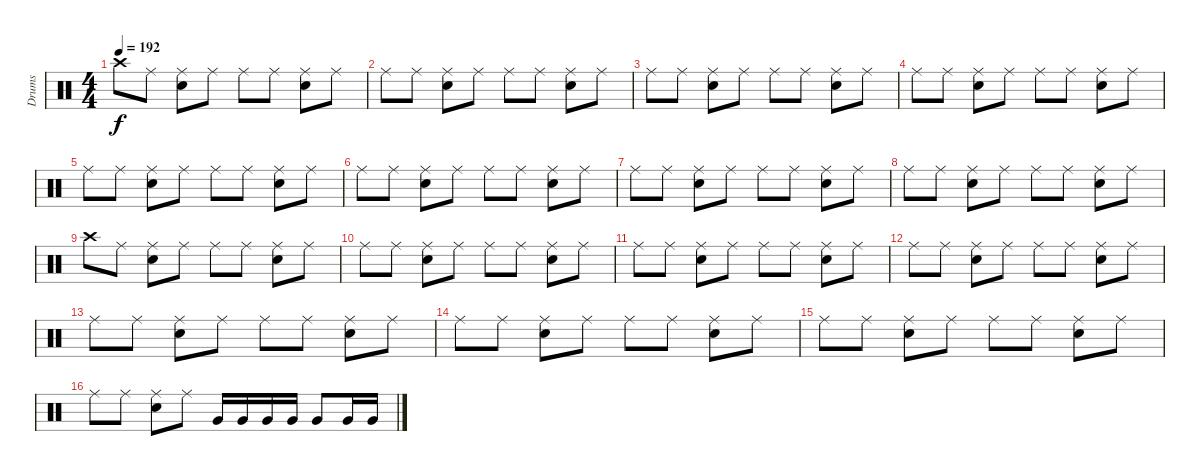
\track ("Drums" "Drums") {instrument percussion}
\staff {score}
\articulation defaults
\ts (4 4)
\tempo 192
\clef neutral
\ks c "Crash high (hit)".8{dy f} "Ride (middle)".8
("Ride (middle)" "Snare (hit) 2").8 "Ride (middle)".8 "Ride (middle)".8 "Ride (middle)".8 ("Ride (middle)" "Snare (hit) 2").8 "Ride (middle)".8 |
"Ride (middle)".8 "Ride (middle)".8 ("Ride (middle)" "Snare (hit) 2").8 "Ride (middle)".8 "Ride (middle)".8 "Ride (middle)".8 ("Ride (middle)" "Snare (hit) 2").8 "Ride (middle)".8 |
"Ride (middle)".8 "Ride (middle)".8 ("Ride (middle)" "Snare (hit) 2").8 "Ride (middle)".8 "Ride (middle)".8 "Ride (middle)".8 ("Ride (middle)" "Snare (hit) 2").8 "Ride (middle)".8 |
"Ride (middle)".8 "Ride (middle)".8 ("Ride (middle)" "Snare (hit) 2").8 "Ride (middle)".8 "Ride (middle)".8 "Ride (middle)".8 ("Ride (middle)" "Snare (hit) 2").8 "Ride (middle)".8 |
"Ride (middle)".8 "Ride (middle)".8 ("Ride (middle)" "Snare (hit) 2").8 "Ride (middle)".8 "Ride (middle)".8 "Ride (middle)".8 ("Ride (middle)" "Snare (hit) 2").8 "Ride (middle)".8 |
"Ride (middle)".8 "Ride (middle)".8 ("Ride (middle)" "Snare (hit) 2").8 "Ride (middle)".8 "Ride (middle)".8 "Ride (middle)".8 ("Ride (middle)" "Snare (hit) 2").8 "Ride (middle)".8 |
"Ride (middle)".8 "Ride (middle)".8 ("Ride (middle)" "Snare (hit) 2").8 "Ride (middle)".8 "Ride (middle)".8 "Ride (middle)".8 ("Ride (middle)" "Snare (hit) 2").8 "Ride (middle)".8 |
"Ride (middle)".8 "Ride (middle)".8 ("Ride (middle)" "Snare (hit) 2").8 "Ride (middle)".8 "Ride (middle)".8 "Ride (middle)".8 ("Ride (middle)" "Snare (hit) 2").8 "Ride (middle)".8 |
"Crash high (hit)".8 "Ride (middle)".8 ("Ride (middle)" "Snare (hit) 2").8 "Ride (middle)".8 "Ride (middle)".8 "Ride (middle)".8 ("Ride (middle)" "Snare (hit) 2").8 "Ride (middle)".8 |
"Ride (middle)".8 "Ride (middle)".8 ("Ride (middle)" "Snare (hit) 2").8 "Ride (middle)".8 "Ride (middle)".8 "Ride (middle)".8 ("Ride (middle)" "Snare (hit) 2").8 "Ride (middle)".8 |
"Ride (middle)".8 "Ride (middle)".8 ("Ride (middle)" "Snare (hit) 2").8 "Ride (middle)".8 "Ride (middle)".8 "Ride (middle)".8 ("Ride (middle)" "Snare (hit) 2").8 "Ride (middle)".8 |
"Ride (middle)".8 "Ride (middle)".8 ("Ride (middle)" "Snare (hit) 2").8 "Ride (middle)".8 "Ride (middle)".8 "Ride (middle)".8 ("Ride (middle)" "Snare (hit) 2").8 "Ride (middle)".8 |
"Ride (middle)".8 "Ride (middle)".8 ("Ride (middle)" "Snare (hit) 2").8 "Ride (middle)".8 "Ride (middle)".8 "Ride (middle)".8 ("Ride (middle)" "Snare (hit) 2").8 "Ride (middle)".8 |
"Ride (middle)".8 "Ride (middle)".8 ("Ride (middle)" "Snare (hit) 2").8 "Ride (middle)".8 "Ride (middle)".8 "Ride (middle)".8 ("Ride (middle)" "Snare (hit) 2").8 "Ride (middle)".8 |
"Ride (middle)".8 "Ride (middle)".8 ("Ride (middle)" "Snare (hit) 2").8 "Ride (middle)".8 "Ride (middle)".8 "Ride (middle)".8 ("Ride (middle)" "Snare (hit) 2").8 "Ride (middle)".8 |
"Ride (middle)".8 "Ride (middle)".8 ("Ride (middle)" "Snare (hit) 2").8 "Ride (middle)".8 "Very Low Tom (hit)".16 "Very Low Tom (hit)".16 "Very Low Tom (hit)".16 "Very Low Tom (hit)".16 "Very Low Tom (hit)".8 "Very Low Tom (hit)".16 "Very Low Tom (hit)".16
